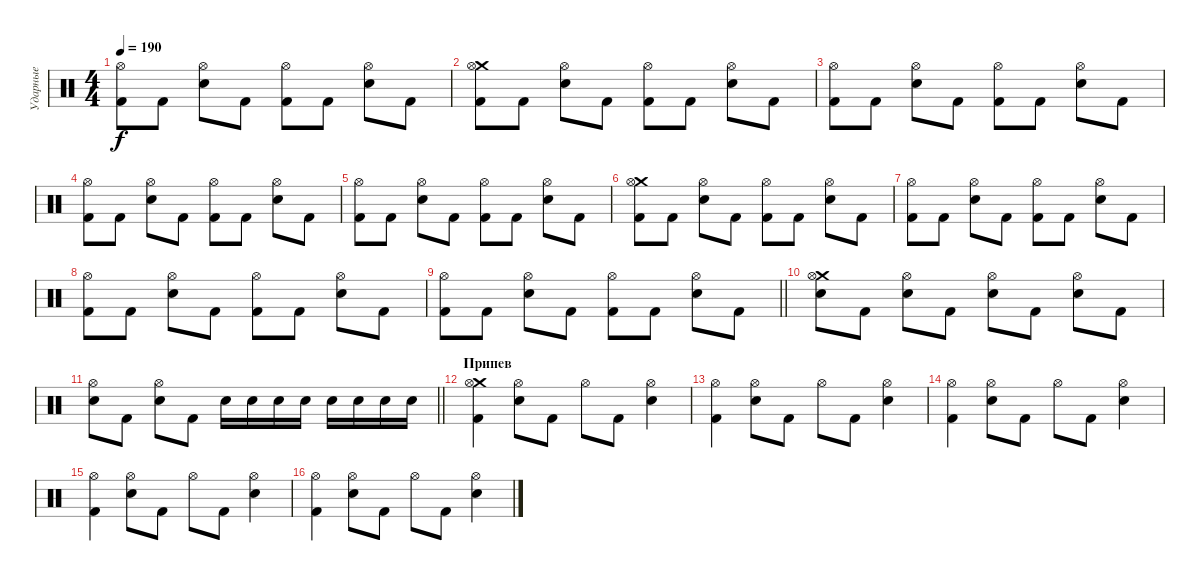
\track ("Ударные" "Ударные") {instrument percussion}
\staff {score}
\articulation defaults
\ts (4 4)
\tempo 190
\clef neutral
\ks c
("Kick (hit) 2" "Hi-Hat (open)").8{dy f} "Kick (hit) 2".8 ("Electric Snare (hit)" "Hi-Hat (open)").8 "Kick (hit) 2".8 ("Kick (hit) 2" "Hi-Hat (open)").8 "Kick (hit) 2".8 ("Electric Snare (hit)" "Hi-Hat (open)").8 "Kick (hit) 2".8 |
("Crash medium (hit)" "Kick (hit) 2" "Hi-Hat (open)").8 "Kick (hit) 2".8 ("Electric Snare (hit)" "Hi-Hat (open)").8 "Kick (hit) 2".8 ("Kick (hit) 2" "Hi-Hat (open)").8 "Kick (hit) 2".8 ("Electric Snare (hit)" "Hi-Hat (open)").8 "Kick (hit) 2".8 |
("Kick (hit) 2" "Hi-Hat (open)").8 "Kick (hit) 2".8 ("Electric Snare (hit)" "Hi-Hat (open)").8 "Kick (hit) 2".8 ("Kick (hit) 2" "Hi-Hat (open)").8 "Kick (hit) 2".8 ("Electric Snare (hit)" "Hi-Hat (open)").8 "Kick (hit) 2".8 |
("Kick (hit) 2" "Hi-Hat (open)").8 "Kick (hit) 2".8 ("Electric Snare (hit)" "Hi-Hat (open)").8 "Kick (hit) 2".8 ("Kick (hit) 2" "Hi-Hat (open)").8 "Kick (hit) 2".8 ("Electric Snare (hit)" "Hi-Hat (open)").8 "Kick (hit) 2".8 |
("Kick (hit) 2" "Hi-Hat (open)").8 "Kick (hit) 2".8 ("Electric Snare (hit)" "Hi-Hat (open)").8 "Kick (hit) 2".8 ("Kick (hit) 2" "Hi-Hat (open)").8 "Kick (hit) 2".8 ("Electric Snare (hit)" "Hi-Hat (open)").8 "Kick (hit) 2".8 |
("Crash medium (hit)" "Kick (hit) 2" "Hi-Hat (open)").8 "Kick (hit) 2".8 ("Electric Snare (hit)" "Hi-Hat (open)").8 "Kick (hit) 2".8 ("Kick (hit) 2" "Hi-Hat (open)").8 "Kick (hit) 2".8 ("Electric Snare (hit)" "Hi-Hat (open)").8 "Kick (hit) 2".8 |
("Kick (hit) 2" "Hi-Hat (open)").8 "Kick (hit) 2".8 ("Electric Snare (hit)" "Hi-Hat (open)").8 "Kick (hit) 2".8 ("Kick (hit) 2" "Hi-Hat (open)").8 "Kick (hit) 2".8 ("Electric Snare (hit)" "Hi-Hat (open)").8 "Kick (hit) 2".8 |
("Kick (hit) 2" "Hi-Hat (open)").8 "Kick (hit) 2".8 ("Electric Snare (hit)" "Hi-Hat (open)").8 "Kick (hit) 2".8 ("Kick (hit) 2" "Hi-Hat (open)").8 "Kick (hit) 2".8 ("Electric Snare (hit)" "Hi-Hat (open)").8 "Kick (hit) 2".8 |
\barLineRight lightlight
("Kick (hit) 2" "Hi-Hat (open)").8 "Kick (hit) 2".8 ("Electric Snare (hit)" "Hi-Hat (open)").8 "Kick (hit) 2".8 ("Kick (hit) 2" "Hi-Hat (open)").8 "Kick (hit) 2".8 ("Electric Snare (hit)" "Hi-Hat (open)").8 "Kick (hit) 2".8 |
\section ("" "")
("Crash medium (hit)" "Electric Snare (hit)" "Hi-Hat (open)").8 "Kick (hit) 2".8 ("Electric Snare (hit)" "Hi-Hat (open)").8 "Kick (hit) 2".8 ("Electric Snare (hit)" "Hi-Hat (open)").8 "Kick (hit) 2".8 ("Electric Snare (hit)" "Hi-Hat (open)").8 "Kick (hit) 2".8 |
\barLineRight lightlight
("Electric Snare (hit)" "Hi-Hat (open)").8 "Kick (hit) 2".8 ("Electric Snare (hit)" "Hi-Hat (open)").8 "Kick (hit) 2".8 "Electric Snare (hit)".16 "Electric Snare (hit)".16 "Electric Snare (hit)".16 "Electric Snare (hit)".16 "Electric Snare (hit)".16 "Electric Snare (hit)".16 "Electric Snare (hit)".16 "Electric Snare (hit)".16 |
\section ("" "Припев")
("Crash medium (hit)" "Kick (hit) 2" "Hi-Hat (open)").4 ("Electric Snare (hit)" "Hi-Hat (open)").8 "Kick (hit) 2".8 "Hi-Hat (open)".8 "Kick (hit) 2".8 ("Electric Snare (hit)" "Hi-Hat (open)").4 |
("Kick (hit) 2" "Hi-Hat (open)").4 ("Electric Snare (hit)" "Hi-Hat (open)").8 "Kick (hit) 2".8 "Hi-Hat (open)".8 "Kick (hit) 2".8 ("Electric Snare (hit)" "Hi-Hat (open)").4 |
("Kick (hit) 2" "Hi-Hat (open)").4 ("Electric Snare (hit)" "Hi-Hat (open)").8 "Kick (hit) 2".8 "Hi-Hat (open)".8 "Kick (hit) 2".8 ("Electric Snare (hit)" "Hi-Hat (open)").4 |
("Kick (hit) 2" "Hi-Hat (open)").4 ("Electric Snare (hit)" "Hi-Hat (open)").8 "Kick (hit) 2".8 "Hi-Hat (open)".8 "Kick (hit) 2".8 ("Electric Snare (hit)" "Hi-Hat (open)").4 |
("Kick (hit) 2" "Hi-Hat (open)").4 ("Electric Snare (hit)" "Hi-Hat (open)").8 "Kick (hit) 2".8 "Hi-Hat (open)".8 "Kick (hit) 2".8 ("Electric Snare (hit)" "Hi-Hat (open)").4
